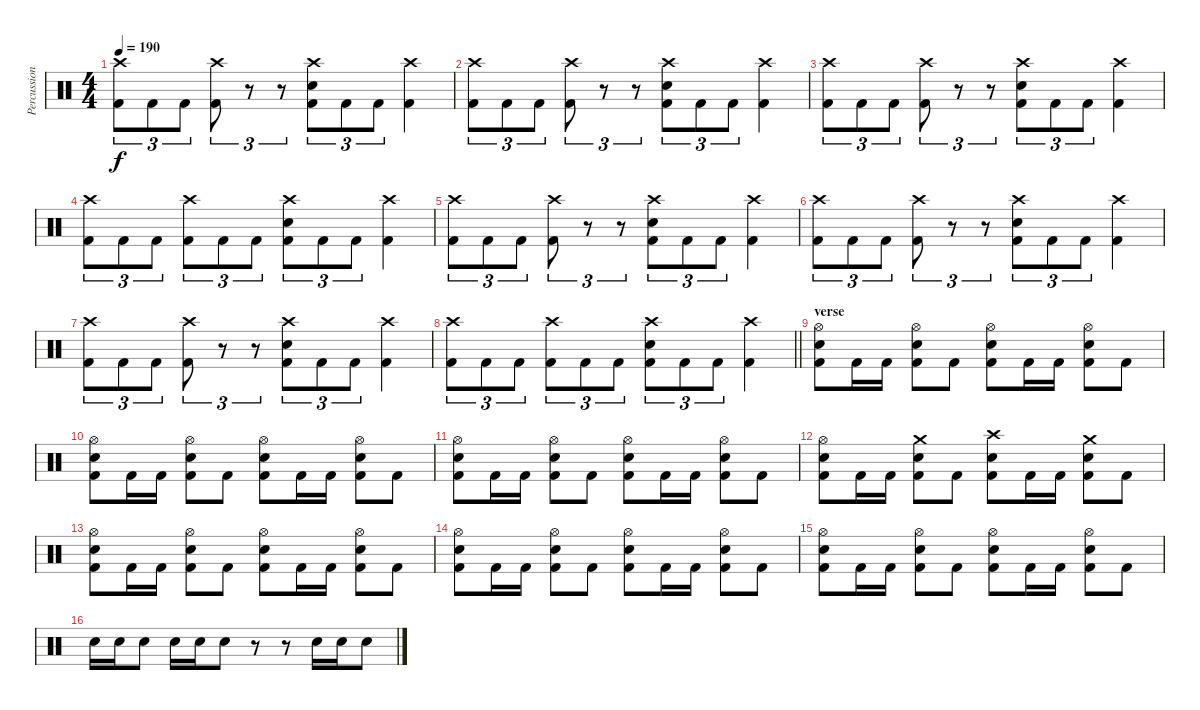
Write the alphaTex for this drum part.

\track ("Percussion" "Percussion") {instrument percussion}
\staff {score}
\articulation defaults
\ts (4 4)
\tempo 190
\clef neutral
\ks c
("Crash high (hit)" "Kick (hit) 2").8{tu (3 2) dy f} "Kick (hit) 2".8{tu (3 2)} "Kick (hit) 2".8{tu (3 2)} ("Crash high (hit)" "Kick (hit) 2").8{tu (3 2)} r.8{tu (3 2)} r.8{tu (3 2)} ("Crash high (hit)" "Electric Snare (hit)" "Kick (hit) 2").8{tu (3 2)} "Kick (hit) 2".8{tu (3 2)} "Kick (hit) 2".8{tu (3 2)} ("Crash high (hit)" "Kick (hit) 2").4 |
("Crash high (hit)" "Kick (hit) 2").8{tu (3 2)} "Kick (hit) 2".8{tu (3 2)} "Kick (hit) 2".8{tu (3 2)} ("Crash high (hit)" "Kick (hit) 2").8{tu (3 2)} r.8{tu (3 2)} r.8{tu (3 2)} ("Crash high (hit)" "Electric Snare (hit)" "Kick (hit) 2").8{tu (3 2)} "Kick (hit) 2".8{tu (3 2)} "Kick (hit) 2".8{tu (3 2)} ("Crash high (hit)" "Kick (hit) 2").4 |
("Crash high (hit)" "Kick (hit) 2").8{tu (3 2)} "Kick (hit) 2".8{tu (3 2)} "Kick (hit) 2".8{tu (3 2)} ("Crash high (hit)" "Kick (hit) 2").8{tu (3 2)} r.8{tu (3 2)} r.8{tu (3 2)} ("Crash high (hit)" "Electric Snare (hit)" "Kick (hit) 2").8{tu (3 2)} "Kick (hit) 2".8{tu (3 2)} "Kick (hit) 2".8{tu (3 2)} ("Crash high (hit)" "Kick (hit) 2").4 |
("Crash high (hit)" "Kick (hit) 2").8{tu (3 2)} "Kick (hit) 2".8{tu (3 2)} "Kick (hit) 2".8{tu (3 2)} ("Crash high (hit)" "Kick (hit) 2").8{tu (3 2)} "Kick (hit) 2".8{tu (3 2)} "Kick (hit) 2".8{tu (3 2)} ("Crash high (hit)" "Electric Snare (hit)" "Kick (hit) 2").8{tu (3 2)} "Kick (hit) 2".8{tu (3 2)} "Kick (hit) 2".8{tu (3 2)} ("Crash high (hit)" "Kick (hit) 2").4 |
("Crash high (hit)" "Kick (hit) 2").8{tu (3 2)} "Kick (hit) 2".8{tu (3 2)} "Kick (hit) 2".8{tu (3 2)} ("Crash high (hit)" "Kick (hit) 2").8{tu (3 2)} r.8{tu (3 2)} r.8{tu (3 2)} ("Crash high (hit)" "Electric Snare (hit)" "Kick (hit) 2").8{tu (3 2)} "Kick (hit) 2".8{tu (3 2)} "Kick (hit) 2".8{tu (3 2)} ("Crash high (hit)" "Kick (hit) 2").4 |
("Crash high (hit)" "Kick (hit) 2").8{tu (3 2)} "Kick (hit) 2".8{tu (3 2)} "Kick (hit) 2".8{tu (3 2)} ("Crash high (hit)" "Kick (hit) 2").8{tu (3 2)} r.8{tu (3 2)} r.8{tu (3 2)} ("Crash high (hit)" "Electric Snare (hit)" "Kick (hit) 2").8{tu (3 2)} "Kick (hit) 2".8{tu (3 2)} "Kick (hit) 2".8{tu (3 2)} ("Crash high (hit)" "Kick (hit) 2").4 |
("Crash high (hit)" "Kick (hit) 2").8{tu (3 2)} "Kick (hit) 2".8{tu (3 2)} "Kick (hit) 2".8{tu (3 2)} ("Crash high (hit)" "Kick (hit) 2").8{tu (3 2)} r.8{tu (3 2)} r.8{tu (3 2)} ("Crash high (hit)" "Electric Snare (hit)" "Kick (hit) 2").8{tu (3 2)} "Kick (hit) 2".8{tu (3 2)} "Kick (hit) 2".8{tu (3 2)} ("Crash high (hit)" "Kick (hit) 2").4 |
\barLineRight lightlight
("Crash high (hit)" "Kick (hit) 2").8{tu (3 2)} "Kick (hit) 2".8{tu (3 2)} "Kick (hit) 2".8{tu (3 2)} ("Crash high (hit)" "Kick (hit) 2").8{tu (3 2)} "Kick (hit) 2".8{tu (3 2)} "Kick (hit) 2".8{tu (3 2)} ("Crash high (hit)" "Electric Snare (hit)" "Kick (hit) 2").8{tu (3 2)} "Kick (hit) 2".8{tu (3 2)} "Kick (hit) 2".8{tu (3 2)} ("Crash high (hit)" "Kick (hit) 2").4 |
\section ("" "verse")
("Hi-Hat (open)" "Electric Snare (hit)" "Kick (hit) 2").8 "Kick (hit) 2".16 "Kick (hit) 2".16 ("Hi-Hat (open)" "Electric Snare (hit)" "Kick (hit) 2").8 "Kick (hit) 2".8 ("Hi-Hat (open)" "Electric Snare (hit)" "Kick (hit) 2").8 "Kick (hit) 2".16 "Kick (hit) 2".16 ("Hi-Hat (open)" "Electric Snare (hit)" "Kick (hit) 2").8 "Kick (hit) 2".8 |
("Hi-Hat (open)" "Electric Snare (hit)" "Kick (hit) 2").8 "Kick (hit) 2".16 "Kick (hit) 2".16 ("Hi-Hat (open)" "Electric Snare (hit)" "Kick (hit) 2").8 "Kick (hit) 2".8 ("Hi-Hat (open)" "Electric Snare (hit)" "Kick (hit) 2").8 "Kick (hit) 2".16 "Kick (hit) 2".16 ("Hi-Hat (open)" "Electric Snare (hit)" "Kick (hit) 2").8 "Kick (hit) 2".8 |
("Hi-Hat (open)" "Electric Snare (hit)" "Kick (hit) 2").8 "Kick (hit) 2".16 "Kick (hit) 2".16 ("Hi-Hat (open)" "Electric Snare (hit)" "Kick (hit) 2").8 "Kick (hit) 2".8 ("Hi-Hat (open)" "Electric Snare (hit)" "Kick (hit) 2").8 "Kick (hit) 2".16 "Kick (hit) 2".16 ("Hi-Hat (open)" "Electric Snare (hit)" "Kick (hit) 2").8 "Kick (hit) 2".8 |
("Hi-Hat (open)" "Electric Snare (hit)" "Kick (hit) 2").8 "Kick (hit) 2".16 "Kick (hit) 2".16 ("Crash medium (hit)" "Electric Snare (hit)" "Kick (hit) 2").8 "Kick (hit) 2".8 ("Crash high (hit)" "Electric Snare (hit)" "Kick (hit) 2").8 "Kick (hit) 2".16 "Kick (hit) 2".16 ("Crash medium (hit)" "Electric Snare (hit)" "Kick (hit) 2").8 "Kick (hit) 2".8 |
("Hi-Hat (open)" "Electric Snare (hit)" "Kick (hit) 2").8 "Kick (hit) 2".16 "Kick (hit) 2".16 ("Hi-Hat (open)" "Electric Snare (hit)" "Kick (hit) 2").8 "Kick (hit) 2".8 ("Hi-Hat (open)" "Electric Snare (hit)" "Kick (hit) 2").8 "Kick (hit) 2".16 "Kick (hit) 2".16 ("Hi-Hat (open)" "Electric Snare (hit)" "Kick (hit) 2").8 "Kick (hit) 2".8 |
("Hi-Hat (open)" "Electric Snare (hit)" "Kick (hit) 2").8 "Kick (hit) 2".16 "Kick (hit) 2".16 ("Hi-Hat (open)" "Electric Snare (hit)" "Kick (hit) 2").8 "Kick (hit) 2".8 ("Hi-Hat (open)" "Electric Snare (hit)" "Kick (hit) 2").8 "Kick (hit) 2".16 "Kick (hit) 2".16 ("Hi-Hat (open)" "Electric Snare (hit)" "Kick (hit) 2").8 "Kick (hit) 2".8 |
("Hi-Hat (open)" "Electric Snare (hit)" "Kick (hit) 2").8 "Kick (hit) 2".16 "Kick (hit) 2".16 ("Hi-Hat (open)" "Electric Snare (hit)" "Kick (hit) 2").8 "Kick (hit) 2".8 ("Hi-Hat (open)" "Electric Snare (hit)" "Kick (hit) 2").8 "Kick (hit) 2".16 "Kick (hit) 2".16 ("Hi-Hat (open)" "Electric Snare (hit)" "Kick (hit) 2").8 "Kick (hit) 2".8 |
"Electric Snare (hit)".16 "Electric Snare (hit)".16 "Electric Snare (hit)".8 "Electric Snare (hit)".16 "Electric Snare (hit)".16 "Electric Snare (hit)".8 r.8 r.8 "Electric Snare (hit)".16 "Electric Snare (hit)".16 "Electric Snare (hit)".8
